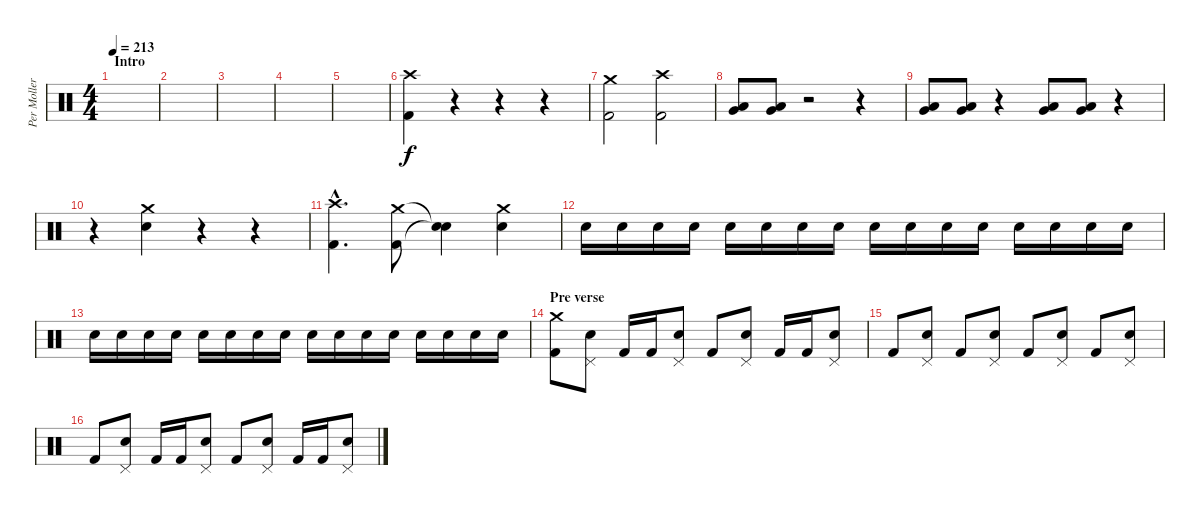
\track ("Per Moller Jensen" "Per Moller") {instrument percussion}
\staff {score}
\articulation defaults
\ts (4 4)
\section ("" "Intro")
\tempo 213
\clef neutral
\ks c
|
|
|
|
|
("Crash high (hit)" "Kick (hit) 2").4 r.4 r.4 r.4 |
("Crash medium (hit)" "Kick (hit) 2").2 ("Crash high (hit)" "Kick (hit) 2").2 |
("Very Low Tom (hit)" "Low Floor Tom (hit)").8 ("Very Low Tom (hit)" "Low Floor Tom (hit)").8 r.2 r.4 |
("Very Low Tom (hit)" "Low Floor Tom (hit)").8 ("Very Low Tom (hit)" "Low Floor Tom (hit)").8 r.4 ("Very Low Tom (hit)" "Low Floor Tom (hit)").8 ("Very Low Tom (hit)" "Low Floor Tom (hit)").8 r.4 |
r.4 ("Crash medium (hit)" "Snare (hit) 2").4 r.4 r.4 |
("Crash high (hit)"{hac} "Kick (hit) 2"{hac}).4{d} ("Crash medium (hit)" "Kick (hit) 2").8 ("Snare (hit)"{t} "Snare (hit)"{t}).4 ("Crash medium (hit)" "Snare (hit) 2").4 |
"Snare (hit) 2".16 "Snare (hit) 2".16 "Snare (hit) 2".16 "Snare (hit) 2".16 "Snare (hit) 2".16 "Snare (hit) 2".16 "Snare (hit) 2".16 "Snare (hit) 2".16 "Snare (hit) 2".16 "Snare (hit) 2".16 "Snare (hit) 2".16 "Snare (hit) 2".16 "Snare (hit) 2".16 "Snare (hit) 2".16 "Snare (hit) 2".16 "Snare (hit) 2".16 |
"Snare (hit) 2".16 "Snare (hit) 2".16 "Snare (hit) 2".16 "Snare (hit) 2".16 "Snare (hit) 2".16 "Snare (hit) 2".16 "Snare (hit) 2".16 "Snare (hit) 2".16 "Snare (hit) 2".16 "Snare (hit) 2".16 "Snare (hit) 2".16 "Snare (hit) 2".16 "Snare (hit) 2".16 "Snare (hit) 2".16 "Snare (hit) 2".16 "Snare (hit) 2".16 |
\section ("" "Pre verse")
("Crash medium (hit)" "Kick (hit) 2").8 ("Pedal Hi-Hat (hit)" "Snare (hit) 2").8 "Kick (hit) 2".16 "Kick (hit) 2".16 ("Pedal Hi-Hat (hit)" "Snare (hit) 2").8 "Kick (hit) 2".8 ("Pedal Hi-Hat (hit)" "Snare (hit) 2").8 "Kick (hit) 2".16 "Kick (hit) 2".16 ("Pedal Hi-Hat (hit)" "Snare (hit) 2").8 |
"Kick (hit) 2".8 ("Pedal Hi-Hat (hit)" "Snare (hit) 2").8 "Kick (hit) 2".8 ("Pedal Hi-Hat (hit)" "Snare (hit) 2").8 "Kick (hit) 2".8 ("Pedal Hi-Hat (hit)" "Snare (hit) 2").8 "Kick (hit) 2".8 ("Pedal Hi-Hat (hit)" "Snare (hit) 2").8 |
"Kick (hit) 2".8 ("Pedal Hi-Hat (hit)" "Snare (hit) 2").8 "Kick (hit) 2".16 "Kick (hit) 2".16 ("Pedal Hi-Hat (hit)" "Snare (hit) 2").8 "Kick (hit) 2".8 ("Pedal Hi-Hat (hit)" "Snare (hit) 2").8 "Kick (hit) 2".16 "Kick (hit) 2".16 ("Pedal Hi-Hat (hit)" "Snare (hit) 2").8
